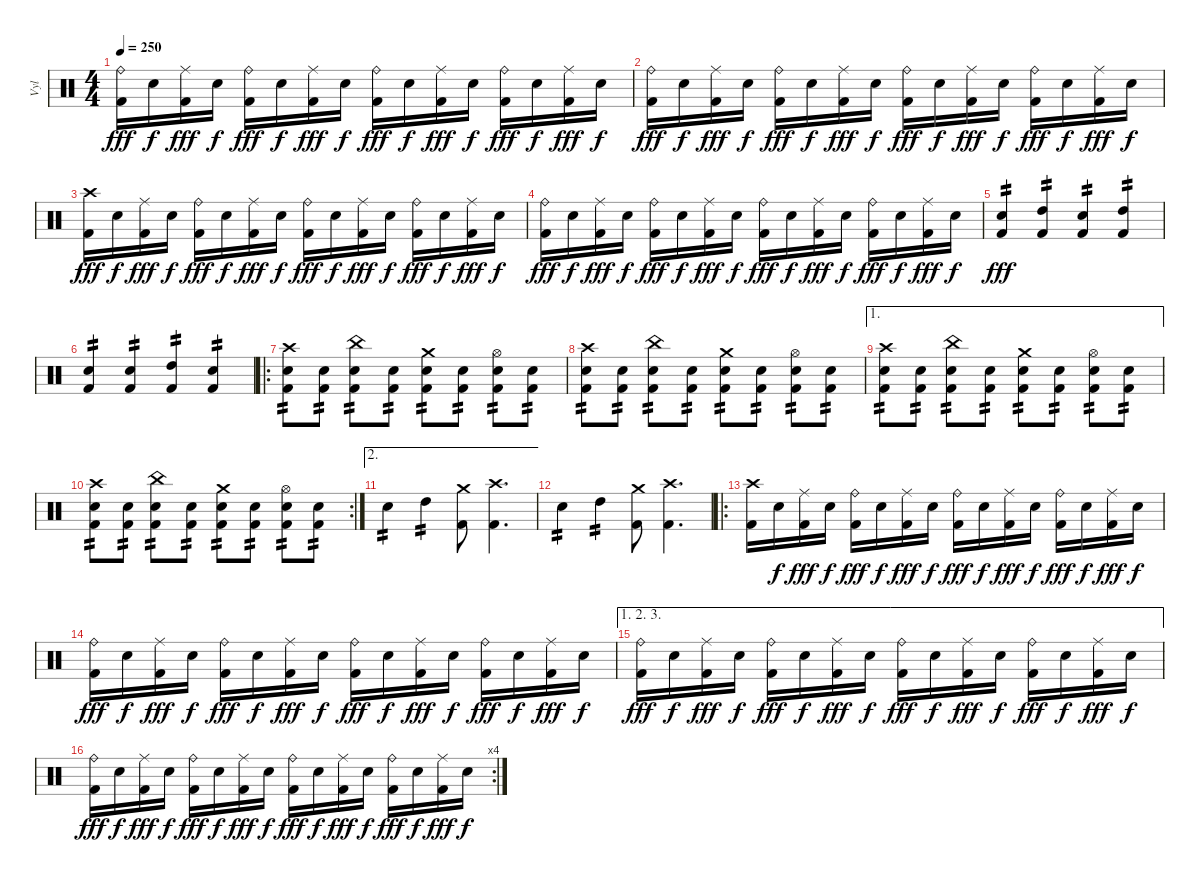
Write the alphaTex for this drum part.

\track ("Vyl" "Vyl") {instrument percussion}
\staff {score}
\articulation defaults
\ts (4 4)
\tempo 250
\clef neutral
\ks c
("Ride (bell)" "Kick (hit) 2").16{dy fff} "Snare (hit) 2".16{dy f} ("Ride (middle)" "Kick (hit) 2").16{dy fff} "Snare (hit) 2".16{dy f} ("Ride (bell)" "Kick (hit) 2").16{dy fff} "Snare (hit) 2".16{dy f} ("Ride (middle)" "Kick (hit) 2").16{dy fff} "Snare (hit) 2".16{dy f} ("Ride (bell)" "Kick (hit) 2").16{dy fff} "Snare (hit) 2".16{dy f} ("Ride (middle)" "Kick (hit) 2").16{dy fff} "Snare (hit) 2".16{dy f} ("Ride (bell)" "Kick (hit) 2").16{dy fff} "Snare (hit) 2".16{dy f} ("Ride (middle)" "Kick (hit) 2").16{dy fff} "Snare (hit) 2".16{dy f} |
("Ride (bell)" "Kick (hit) 2").16{dy fff} "Snare (hit) 2".16{dy f} ("Ride (middle)" "Kick (hit) 2").16{dy fff} "Snare (hit) 2".16{dy f} ("Ride (bell)" "Kick (hit) 2").16{dy fff} "Snare (hit) 2".16{dy f} ("Ride (middle)" "Kick (hit) 2").16{dy fff} "Snare (hit) 2".16{dy f} ("Ride (bell)" "Kick (hit) 2").16{dy fff} "Snare (hit) 2".16{dy f} ("Ride (middle)" "Kick (hit) 2").16{dy fff} "Snare (hit) 2".16{dy f} ("Ride (bell)" "Kick (hit) 2").16{dy fff} "Snare (hit) 2".16{dy f} ("Ride (middle)" "Kick (hit) 2").16{dy fff} "Snare (hit) 2".16{dy f} |
("Crash high (hit)" "Kick (hit) 2").16{dy fff} "Snare (hit) 2".16{dy f} ("Ride (middle)" "Kick (hit) 2").16{dy fff} "Snare (hit) 2".16{dy f} ("Ride (bell)" "Kick (hit) 2").16{dy fff} "Snare (hit) 2".16{dy f} ("Ride (middle)" "Kick (hit) 2").16{dy fff} "Snare (hit) 2".16{dy f} ("Ride (bell)" "Kick (hit) 2").16{dy fff} "Snare (hit) 2".16{dy f} ("Ride (middle)" "Kick (hit) 2").16{dy fff} "Snare (hit) 2".16{dy f} ("Ride (bell)" "Kick (hit) 2").16{dy fff} "Snare (hit) 2".16{dy f} ("Ride (middle)" "Kick (hit) 2").16{dy fff} "Snare (hit) 2".16{dy f} |
("Ride (bell)" "Kick (hit) 2").16{dy fff} "Snare (hit) 2".16{dy f} ("Ride (middle)" "Kick (hit) 2").16{dy fff} "Snare (hit) 2".16{dy f} ("Ride (bell)" "Kick (hit) 2").16{dy fff} "Snare (hit) 2".16{dy f} ("Ride (middle)" "Kick (hit) 2").16{dy fff} "Snare (hit) 2".16{dy f} ("Ride (bell)" "Kick (hit) 2").16{dy fff} "Snare (hit) 2".16{dy f} ("Ride (middle)" "Kick (hit) 2").16{dy fff} "Snare (hit) 2".16{dy f} ("Ride (bell)" "Kick (hit) 2").16{dy fff} "Snare (hit) 2".16{dy f} ("Ride (middle)" "Kick (hit) 2").16{dy fff} "Snare (hit) 2".16{dy f} |
("Snare (hit) 2" "Kick (hit) 2").4{tp 2 dy fff} ("High Tom (hit)" "Kick (hit) 2").4{tp 2} ("Snare (hit) 2" "Kick (hit) 2").4{tp 2} ("High Tom (hit)" "Kick (hit) 2").4{tp 2} |
("Snare (hit) 2" "Kick (hit) 2").4{tp 2} ("Snare (hit) 2" "Kick (hit) 2").4{tp 2} ("High Tom (hit)" "Kick (hit) 2").4{tp 2} ("Snare (hit) 2" "Kick (hit) 2").4{tp 2} |
\ro
("Crash high (hit)" "Snare (hit) 2" "Kick (hit) 2").8{tp 2} ("Snare (hit) 2" "Kick (hit) 2").8{tp 2} ("China (hit)" "Snare (hit) 2" "Kick (hit) 2").8{tp 2} ("Snare (hit) 2" "Kick (hit) 2").8{tp 2} ("Crash medium (hit)" "Snare (hit) 2" "Kick (hit) 2").8{tp 2} ("Snare (hit) 2" "Kick (hit) 2").8{tp 2} ("Hi-Hat (open)" "Snare (hit) 2" "Kick (hit) 2").8{tp 2} ("Snare (hit) 2" "Kick (hit) 2").8{tp 2} |
("Crash high (hit)" "Snare (hit) 2" "Kick (hit) 2").8{tp 2} ("Snare (hit) 2" "Kick (hit) 2").8{tp 2} ("China (hit)" "Snare (hit) 2" "Kick (hit) 2").8{tp 2} ("Snare (hit) 2" "Kick (hit) 2").8{tp 2} ("Crash medium (hit)" "Snare (hit) 2" "Kick (hit) 2").8{tp 2} ("Snare (hit) 2" "Kick (hit) 2").8{tp 2} ("Hi-Hat (open)" "Snare (hit) 2" "Kick (hit) 2").8{tp 2} ("Snare (hit) 2" "Kick (hit) 2").8{tp 2} |
\ae 1
("Crash high (hit)" "Snare (hit) 2" "Kick (hit) 2").8{tp 2} ("Snare (hit) 2" "Kick (hit) 2").8{tp 2} ("China (hit)" "Snare (hit) 2" "Kick (hit) 2").8{tp 2} ("Snare (hit) 2" "Kick (hit) 2").8{tp 2} ("Crash medium (hit)" "Snare (hit) 2" "Kick (hit) 2").8{tp 2} ("Snare (hit) 2" "Kick (hit) 2").8{tp 2} ("Hi-Hat (open)" "Snare (hit) 2" "Kick (hit) 2").8{tp 2} ("Snare (hit) 2" "Kick (hit) 2").8{tp 2} |
\rc 2
("Crash high (hit)" "Snare (hit) 2" "Kick (hit) 2").8{tp 2} ("Snare (hit) 2" "Kick (hit) 2").8{tp 2} ("China (hit)" "Snare (hit) 2" "Kick (hit) 2").8{tp 2} ("Snare (hit) 2" "Kick (hit) 2").8{tp 2} ("Crash medium (hit)" "Snare (hit) 2" "Kick (hit) 2").8{tp 2} ("Snare (hit) 2" "Kick (hit) 2").8{tp 2} ("Hi-Hat (open)" "Snare (hit) 2" "Kick (hit) 2").8{tp 2} ("Snare (hit) 2" "Kick (hit) 2").8{tp 2} |
\ae 2 "Snare (hit) 2".4{tp 2} "High Tom (hit)".4{tp 2}
("Crash medium (hit)" "Kick (hit) 2").8 ("Crash high (hit)" "Kick (hit) 2").4{d} |
"Snare (hit) 2".4{tp 2} "High Tom (hit)".4{tp 2} ("Crash medium (hit)" "Kick (hit) 2").8 ("Crash high (hit)" "Kick (hit) 2").4{d} |
\ro
("Crash high (hit)" "Kick (hit) 2").16 "Snare (hit) 2".16{dy f} ("Ride (middle)" "Kick (hit) 2").16{dy fff} "Snare (hit) 2".16{dy f} ("Ride (bell)" "Kick (hit) 2").16{dy fff} "Snare (hit) 2".16{dy f} ("Ride (middle)" "Kick (hit) 2").16{dy fff} "Snare (hit) 2".16{dy f} ("Ride (bell)" "Kick (hit) 2").16{dy fff} "Snare (hit) 2".16{dy f} ("Ride (middle)" "Kick (hit) 2").16{dy fff} "Snare (hit) 2".16{dy f} ("Ride (bell)" "Kick (hit) 2").16{dy fff} "Snare (hit) 2".16{dy f} ("Ride (middle)" "Kick (hit) 2").16{dy fff} "Snare (hit) 2".16{dy f} |
("Ride (bell)" "Kick (hit) 2").16{dy fff} "Snare (hit) 2".16{dy f} ("Ride (middle)" "Kick (hit) 2").16{dy fff} "Snare (hit) 2".16{dy f} ("Ride (bell)" "Kick (hit) 2").16{dy fff} "Snare (hit) 2".16{dy f} ("Ride (middle)" "Kick (hit) 2").16{dy fff} "Snare (hit) 2".16{dy f} ("Ride (bell)" "Kick (hit) 2").16{dy fff} "Snare (hit) 2".16{dy f} ("Ride (middle)" "Kick (hit) 2").16{dy fff} "Snare (hit) 2".16{dy f} ("Ride (bell)" "Kick (hit) 2").16{dy fff} "Snare (hit) 2".16{dy f} ("Ride (middle)" "Kick (hit) 2").16{dy fff} "Snare (hit) 2".16{dy f} |
\ae (1 2 3)
("Ride (bell)" "Kick (hit) 2").16{dy fff} "Snare (hit) 2".16{dy f} ("Ride (middle)" "Kick (hit) 2").16{dy fff} "Snare (hit) 2".16{dy f} ("Ride (bell)" "Kick (hit) 2").16{dy fff} "Snare (hit) 2".16{dy f} ("Ride (middle)" "Kick (hit) 2").16{dy fff} "Snare (hit) 2".16{dy f} ("Ride (bell)" "Kick (hit) 2").16{dy fff} "Snare (hit) 2".16{dy f} ("Ride (middle)" "Kick (hit) 2").16{dy fff} "Snare (hit) 2".16{dy f} ("Ride (bell)" "Kick (hit) 2").16{dy fff} "Snare (hit) 2".16{dy f} ("Ride (middle)" "Kick (hit) 2").16{dy fff} "Snare (hit) 2".16{dy f} |
\rc 4
("Ride (bell)" "Kick (hit) 2").16{dy fff} "Snare (hit) 2".16{dy f} ("Ride (middle)" "Kick (hit) 2").16{dy fff} "Snare (hit) 2".16{dy f} ("Ride (bell)" "Kick (hit) 2").16{dy fff} "Snare (hit) 2".16{dy f} ("Ride (middle)" "Kick (hit) 2").16{dy fff} "Snare (hit) 2".16{dy f} ("Ride (bell)" "Kick (hit) 2").16{dy fff} "Snare (hit) 2".16{dy f} ("Ride (middle)" "Kick (hit) 2").16{dy fff} "Snare (hit) 2".16{dy f} ("Ride (bell)" "Kick (hit) 2").16{dy fff} "Snare (hit) 2".16{dy f} ("Ride (middle)" "Kick (hit) 2").16{dy fff} "Snare (hit) 2".16{dy f}
